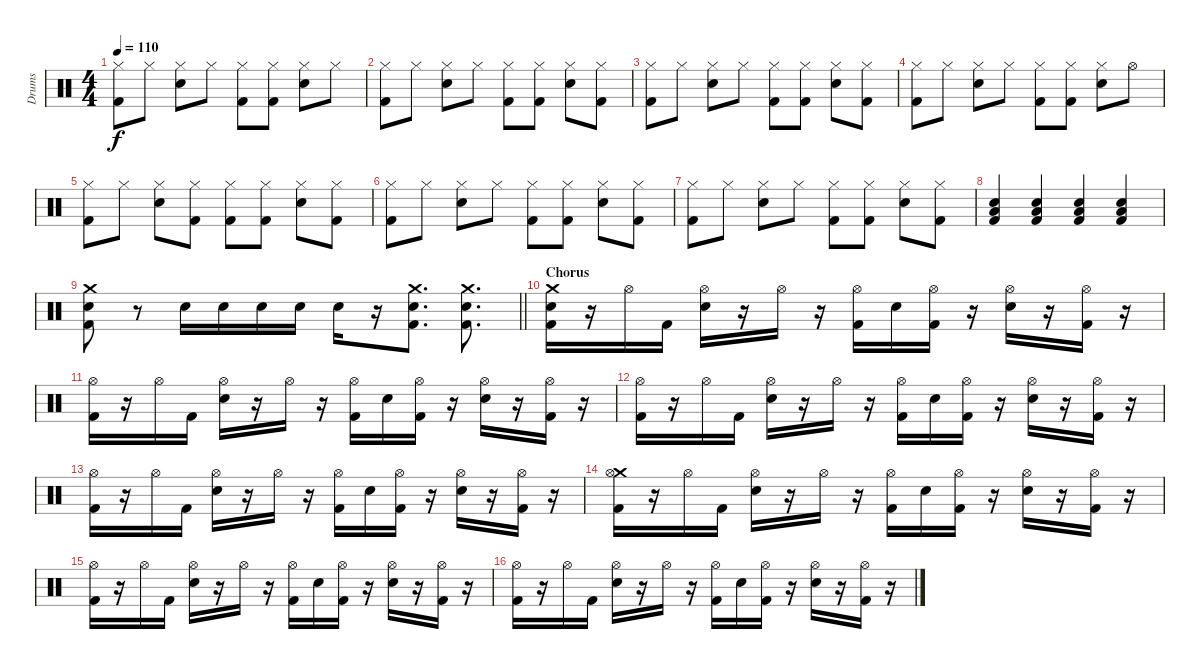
\track ("Drums" "Drums") {instrument percussion}
\staff {score}
\articulation defaults
\ts (4 4)
\tempo 110
\clef neutral
\ks c
("Hi-Hat (closed)" "Kick (hit) 2").8{dy f} "Hi-Hat (closed)".8 ("Hi-Hat (closed)" "Electric Snare (hit)").8 "Hi-Hat (closed)".8 ("Hi-Hat (closed)" "Kick (hit) 2").8 ("Hi-Hat (closed)" "Kick (hit) 2").8 ("Hi-Hat (closed)" "Electric Snare (hit)").8 "Hi-Hat (closed)".8 |
("Hi-Hat (closed)" "Kick (hit) 2").8 "Hi-Hat (closed)".8 ("Hi-Hat (closed)" "Electric Snare (hit)").8 "Hi-Hat (closed)".8 ("Hi-Hat (closed)" "Kick (hit) 2").8 ("Hi-Hat (closed)" "Kick (hit) 2").8 ("Hi-Hat (closed)" "Electric Snare (hit)").8 ("Hi-Hat (closed)" "Kick (hit) 2").8 |
("Hi-Hat (closed)" "Kick (hit) 2").8 "Hi-Hat (closed)".8 ("Hi-Hat (closed)" "Electric Snare (hit)").8 "Hi-Hat (closed)".8 ("Hi-Hat (closed)" "Kick (hit) 2").8 ("Hi-Hat (closed)" "Kick (hit) 2").8 ("Hi-Hat (closed)" "Electric Snare (hit)").8 ("Hi-Hat (closed)" "Kick (hit) 2").8 |
("Hi-Hat (closed)" "Kick (hit) 2").8 "Hi-Hat (closed)".8 ("Hi-Hat (closed)" "Electric Snare (hit)").8 "Hi-Hat (closed)".8 ("Hi-Hat (closed)" "Kick (hit) 2").8 ("Hi-Hat (closed)" "Kick (hit) 2").8 ("Hi-Hat (closed)" "Electric Snare (hit)").8 "Hi-Hat (open)".8 |
("Hi-Hat (closed)" "Kick (hit) 2").8 "Hi-Hat (closed)".8 ("Hi-Hat (closed)" "Electric Snare (hit)").8 ("Hi-Hat (closed)" "Kick (hit) 2").8 ("Hi-Hat (closed)" "Kick (hit) 2").8 ("Hi-Hat (closed)" "Kick (hit) 2").8 ("Hi-Hat (closed)" "Electric Snare (hit)").8 ("Hi-Hat (closed)" "Kick (hit) 2").8 |
("Hi-Hat (closed)" "Kick (hit) 2").8 "Hi-Hat (closed)".8 ("Hi-Hat (closed)" "Electric Snare (hit)").8 "Hi-Hat (closed)".8 ("Hi-Hat (closed)" "Kick (hit) 2").8 ("Hi-Hat (closed)" "Kick (hit) 2").8 ("Hi-Hat (closed)" "Electric Snare (hit)").8 ("Hi-Hat (closed)" "Kick (hit) 2").8 |
("Hi-Hat (closed)" "Kick (hit) 2").8 "Hi-Hat (closed)".8 ("Hi-Hat (closed)" "Electric Snare (hit)").8 "Hi-Hat (closed)".8 ("Hi-Hat (closed)" "Kick (hit) 2").8 ("Hi-Hat (closed)" "Kick (hit) 2").8 ("Hi-Hat (closed)" "Electric Snare (hit)").8 ("Hi-Hat (closed)" "Kick (hit) 2").8 |
("Electric Snare (hit)" "Low Tom (hit)" "Kick (hit) 2").4 ("Electric Snare (hit)" "Low Tom (hit)" "Kick (hit) 2").4 ("Electric Snare (hit)" "Low Tom (hit)" "Kick (hit) 2").4 ("Electric Snare (hit)" "Low Tom (hit)" "Kick (hit) 2").4 |
\barLineRight lightlight
("Crash medium (hit)" "Electric Snare (hit)" "Kick (hit) 2").8 r.8 "Electric Snare (hit)".16 "Electric Snare (hit)".16 "Electric Snare (hit)".16 "Electric Snare (hit)".16 "Electric Snare (hit)".16 r.16 ("Crash medium (hit)" "Electric Snare (hit)" "Kick (hit) 2").8{d} ("Crash medium (hit)" "Electric Snare (hit)" "Kick (hit) 2").8{d} |
\section ("" "Chorus")
("Crash medium (hit)" "Electric Snare (hit)" "Kick (hit) 2").16 r.16 "Hi-Hat (open)".16 "Kick (hit) 2".16 ("Hi-Hat (open)" "Electric Snare (hit)").16 r.16 "Hi-Hat (open)".16 r.16 ("Hi-Hat (open)" "Kick (hit) 2").16 "Electric Snare (hit)".16 ("Hi-Hat (open)" "Kick (hit) 2").16 r.16 ("Hi-Hat (open)" "Electric Snare (hit)").16 r.16 ("Hi-Hat (open)" "Kick (hit) 2").16 r.16 |
("Hi-Hat (open)" "Kick (hit) 2").16 r.16 "Hi-Hat (open)".16 "Kick (hit) 2".16 ("Hi-Hat (open)" "Electric Snare (hit)").16 r.16 "Hi-Hat (open)".16 r.16 ("Hi-Hat (open)" "Kick (hit) 2").16 "Electric Snare (hit)".16 ("Hi-Hat (open)" "Kick (hit) 2").16 r.16 ("Hi-Hat (open)" "Electric Snare (hit)").16 r.16 ("Hi-Hat (open)" "Kick (hit) 2").16 r.16 |
("Hi-Hat (open)" "Kick (hit) 2").16 r.16 "Hi-Hat (open)".16 "Kick (hit) 2".16 ("Hi-Hat (open)" "Electric Snare (hit)").16 r.16 "Hi-Hat (open)".16 r.16 ("Hi-Hat (open)" "Kick (hit) 2").16 "Electric Snare (hit)".16 ("Hi-Hat (open)" "Kick (hit) 2").16 r.16 ("Hi-Hat (open)" "Electric Snare (hit)").16 r.16 ("Hi-Hat (open)" "Kick (hit) 2").16 r.16 |
("Hi-Hat (open)" "Kick (hit) 2").16 r.16 "Hi-Hat (open)".16 "Kick (hit) 2".16 ("Hi-Hat (open)" "Electric Snare (hit)").16 r.16 "Hi-Hat (open)".16 r.16 ("Hi-Hat (open)" "Kick (hit) 2").16 "Electric Snare (hit)".16 ("Hi-Hat (open)" "Kick (hit) 2").16 r.16 ("Hi-Hat (open)" "Electric Snare (hit)").16 r.16 ("Hi-Hat (open)" "Kick (hit) 2").16 r.16 |
("Crash medium (hit)" "Hi-Hat (open)" "Kick (hit) 2").16 r.16 "Hi-Hat (open)".16 "Kick (hit) 2".16 ("Hi-Hat (open)" "Electric Snare (hit)").16 r.16 "Hi-Hat (open)".16 r.16 ("Hi-Hat (open)" "Kick (hit) 2").16 "Electric Snare (hit)".16 ("Hi-Hat (open)" "Kick (hit) 2").16 r.16 ("Hi-Hat (open)" "Electric Snare (hit)").16 r.16 ("Hi-Hat (open)" "Kick (hit) 2").16 r.16 |
("Hi-Hat (open)" "Kick (hit) 2").16 r.16 "Hi-Hat (open)".16 "Kick (hit) 2".16 ("Hi-Hat (open)" "Electric Snare (hit)").16 r.16 "Hi-Hat (open)".16 r.16 ("Hi-Hat (open)" "Kick (hit) 2").16 "Electric Snare (hit)".16 ("Hi-Hat (open)" "Kick (hit) 2").16 r.16 ("Hi-Hat (open)" "Electric Snare (hit)").16 r.16 ("Hi-Hat (open)" "Kick (hit) 2").16 r.16 |
("Hi-Hat (open)" "Kick (hit) 2").16 r.16 "Hi-Hat (open)".16 "Kick (hit) 2".16 ("Hi-Hat (open)" "Electric Snare (hit)").16 r.16 "Hi-Hat (open)".16 r.16 ("Hi-Hat (open)" "Kick (hit) 2").16 "Electric Snare (hit)".16 ("Hi-Hat (open)" "Kick (hit) 2").16 r.16 ("Hi-Hat (open)" "Electric Snare (hit)").16 r.16 ("Hi-Hat (open)" "Kick (hit) 2").16 r.16
